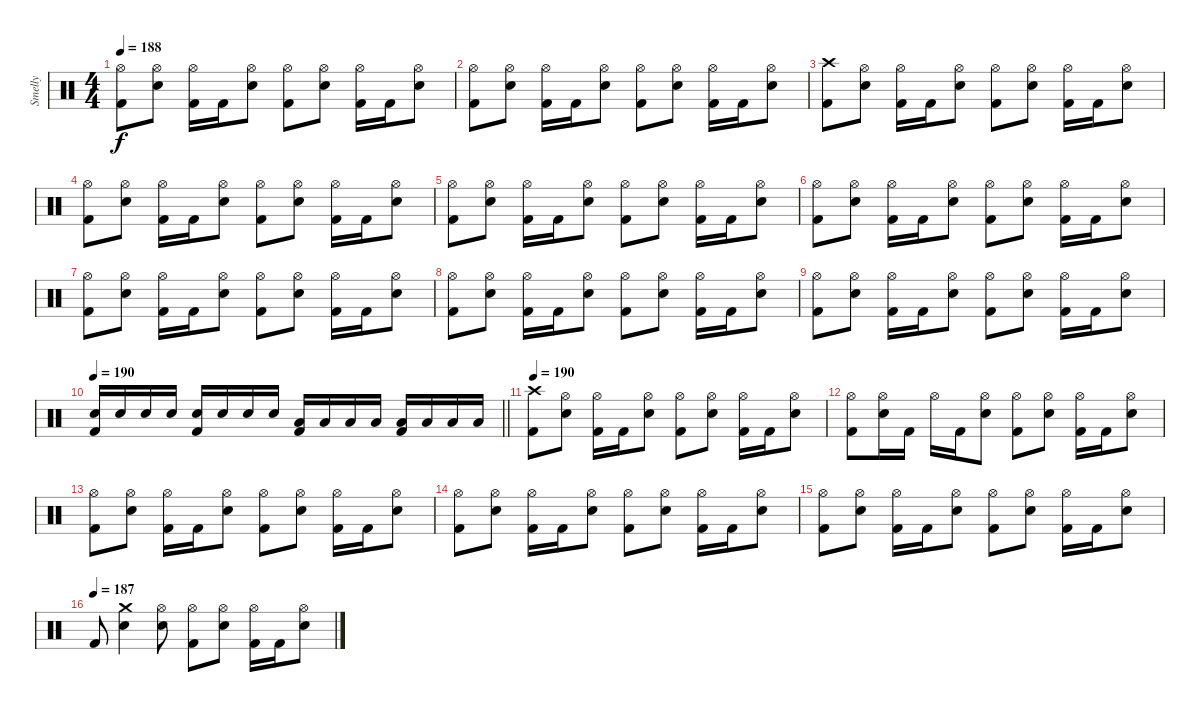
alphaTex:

\track ("Smelly" "Smelly") {instrument percussion}
\staff {score}
\articulation defaults
\ts (4 4)
\tempo 188
\clef neutral
\ks c
("Hi-Hat (open)" "Kick (hit) 2").8{dy f} ("Hi-Hat (open)" "Electric Snare (hit)").8 ("Hi-Hat (open)" "Kick (hit) 2").16 "Kick (hit) 2".16 ("Hi-Hat (open)" "Electric Snare (hit)").8 ("Hi-Hat (open)" "Kick (hit) 2").8 ("Hi-Hat (open)" "Electric Snare (hit)").8 ("Hi-Hat (open)" "Kick (hit) 2").16 "Kick (hit) 2".16 ("Hi-Hat (open)" "Electric Snare (hit)").8 |
("Hi-Hat (open)" "Kick (hit) 2").8 ("Hi-Hat (open)" "Electric Snare (hit)").8 ("Hi-Hat (open)" "Kick (hit) 2").16 "Kick (hit) 2".16 ("Hi-Hat (open)" "Electric Snare (hit)").8 ("Hi-Hat (open)" "Kick (hit) 2").8 ("Hi-Hat (open)" "Electric Snare (hit)").8 ("Hi-Hat (open)" "Kick (hit) 2").16 "Kick (hit) 2".16 ("Hi-Hat (open)" "Electric Snare (hit)").8 |
("Crash high (hit)" "Kick (hit) 2").8 ("Hi-Hat (open)" "Electric Snare (hit)").8 ("Hi-Hat (open)" "Kick (hit) 2").16 "Kick (hit) 2".16 ("Hi-Hat (open)" "Electric Snare (hit)").8 ("Hi-Hat (open)" "Kick (hit) 2").8 ("Hi-Hat (open)" "Electric Snare (hit)").8 ("Hi-Hat (open)" "Kick (hit) 2").16 "Kick (hit) 2".16 ("Hi-Hat (open)" "Electric Snare (hit)").8 |
("Hi-Hat (open)" "Kick (hit) 2").8 ("Hi-Hat (open)" "Electric Snare (hit)").8 ("Hi-Hat (open)" "Kick (hit) 2").16 "Kick (hit) 2".16 ("Hi-Hat (open)" "Electric Snare (hit)").8 ("Hi-Hat (open)" "Kick (hit) 2").8 ("Hi-Hat (open)" "Electric Snare (hit)").8 ("Hi-Hat (open)" "Kick (hit) 2").16 "Kick (hit) 2".16 ("Hi-Hat (open)" "Electric Snare (hit)").8 |
("Hi-Hat (open)" "Kick (hit) 2").8 ("Hi-Hat (open)" "Electric Snare (hit)").8 ("Hi-Hat (open)" "Kick (hit) 2").16 "Kick (hit) 2".16 ("Hi-Hat (open)" "Electric Snare (hit)").8 ("Hi-Hat (open)" "Kick (hit) 2").8 ("Hi-Hat (open)" "Electric Snare (hit)").8 ("Hi-Hat (open)" "Kick (hit) 2").16 "Kick (hit) 2".16 ("Hi-Hat (open)" "Electric Snare (hit)").8 |
("Hi-Hat (open)" "Kick (hit) 2").8 ("Hi-Hat (open)" "Electric Snare (hit)").8 ("Hi-Hat (open)" "Kick (hit) 2").16 "Kick (hit) 2".16 ("Hi-Hat (open)" "Electric Snare (hit)").8 ("Hi-Hat (open)" "Kick (hit) 2").8 ("Hi-Hat (open)" "Electric Snare (hit)").8 ("Hi-Hat (open)" "Kick (hit) 2").16 "Kick (hit) 2".16 ("Hi-Hat (open)" "Electric Snare (hit)").8 |
("Hi-Hat (open)" "Kick (hit) 2").8 ("Hi-Hat (open)" "Electric Snare (hit)").8 ("Hi-Hat (open)" "Kick (hit) 2").16 "Kick (hit) 2".16 ("Hi-Hat (open)" "Electric Snare (hit)").8 ("Hi-Hat (open)" "Kick (hit) 2").8 ("Hi-Hat (open)" "Electric Snare (hit)").8 ("Hi-Hat (open)" "Kick (hit) 2").16 "Kick (hit) 2".16 ("Hi-Hat (open)" "Electric Snare (hit)").8 |
("Hi-Hat (open)" "Kick (hit) 2").8 ("Hi-Hat (open)" "Electric Snare (hit)").8 ("Hi-Hat (open)" "Kick (hit) 2").16 "Kick (hit) 2".16 ("Hi-Hat (open)" "Electric Snare (hit)").8 ("Hi-Hat (open)" "Kick (hit) 2").8 ("Hi-Hat (open)" "Electric Snare (hit)").8 ("Hi-Hat (open)" "Kick (hit) 2").16 "Kick (hit) 2".16 ("Hi-Hat (open)" "Electric Snare (hit)").8 |
("Hi-Hat (open)" "Kick (hit) 2").8 ("Hi-Hat (open)" "Electric Snare (hit)").8 ("Hi-Hat (open)" "Kick (hit) 2").16 "Kick (hit) 2".16 ("Hi-Hat (open)" "Electric Snare (hit)").8 ("Hi-Hat (open)" "Kick (hit) 2").8 ("Hi-Hat (open)" "Electric Snare (hit)").8 ("Hi-Hat (open)" "Kick (hit) 2").16 "Kick (hit) 2".16 ("Hi-Hat (open)" "Electric Snare (hit)").8 |
\tempo 190
\barLineRight lightlight
("Electric Snare (hit)" "Kick (hit) 2").16 "Electric Snare (hit)".16 "Electric Snare (hit)".16 "Electric Snare (hit)".16 ("Electric Snare (hit)" "Kick (hit) 2").16 "Electric Snare (hit)".16 "Electric Snare (hit)".16 "Electric Snare (hit)".16 ("Low Tom (hit)" "Kick (hit) 2").16 "Low Tom (hit)".16 "Low Tom (hit)".16 "Low Tom (hit)".16 ("Low Floor Tom (hit)" "Kick (hit) 2").16 "Low Floor Tom (hit)".16 "Low Floor Tom (hit)".16 "Low Floor Tom (hit)".16 |
\section ("" "")
\tempo 190
("Crash high (hit)" "Kick (hit) 2").8 ("Hi-Hat (open)" "Electric Snare (hit)").8 ("Hi-Hat (open)" "Kick (hit) 2").16 "Kick (hit) 2".16 ("Hi-Hat (open)" "Electric Snare (hit)").8 ("Hi-Hat (open)" "Kick (hit) 2").8 ("Hi-Hat (open)" "Electric Snare (hit)").8 ("Hi-Hat (open)" "Kick (hit) 2").16 "Kick (hit) 2".16 ("Hi-Hat (open)" "Electric Snare (hit)").8 |
("Hi-Hat (open)" "Kick (hit) 2").8 ("Hi-Hat (open)" "Electric Snare (hit)").16 "Kick (hit) 2".16 "Hi-Hat (open)".16 "Kick (hit) 2".16 ("Hi-Hat (open)" "Electric Snare (hit)").8 ("Hi-Hat (open)" "Kick (hit) 2").8 ("Hi-Hat (open)" "Electric Snare (hit)").8 ("Hi-Hat (open)" "Kick (hit) 2").16 "Kick (hit) 2".16 ("Hi-Hat (open)" "Electric Snare (hit)").8 |
("Hi-Hat (open)" "Kick (hit) 2").8 ("Hi-Hat (open)" "Electric Snare (hit)").8 ("Hi-Hat (open)" "Kick (hit) 2").16 "Kick (hit) 2".16 ("Hi-Hat (open)" "Electric Snare (hit)").8 ("Hi-Hat (open)" "Kick (hit) 2").8 ("Hi-Hat (open)" "Electric Snare (hit)").8 ("Hi-Hat (open)" "Kick (hit) 2").16 "Kick (hit) 2".16 ("Hi-Hat (open)" "Electric Snare (hit)").8 |
("Hi-Hat (open)" "Kick (hit) 2").8 ("Hi-Hat (open)" "Electric Snare (hit)").8 ("Hi-Hat (open)" "Kick (hit) 2").16 "Kick (hit) 2".16 ("Hi-Hat (open)" "Electric Snare (hit)").8 ("Hi-Hat (open)" "Kick (hit) 2").8 ("Hi-Hat (open)" "Electric Snare (hit)").8 ("Hi-Hat (open)" "Kick (hit) 2").16 "Kick (hit) 2".16 ("Hi-Hat (open)" "Electric Snare (hit)").8 |
("Hi-Hat (open)" "Kick (hit) 2").8 ("Hi-Hat (open)" "Electric Snare (hit)").8 ("Hi-Hat (open)" "Kick (hit) 2").16 "Kick (hit) 2".16 ("Hi-Hat (open)" "Electric Snare (hit)").8 ("Hi-Hat (open)" "Kick (hit) 2").8 ("Hi-Hat (open)" "Electric Snare (hit)").8 ("Hi-Hat (open)" "Kick (hit) 2").16 "Kick (hit) 2".16 ("Hi-Hat (open)" "Electric Snare (hit)").8 |
\tempo (187)
"Kick (hit) 2".8 ("Crash medium (hit)" "Electric Snare (hit)").4 ("Hi-Hat (open)" "Electric Snare (hit)").8 ("Hi-Hat (open)" "Kick (hit) 2").8 ("Hi-Hat (open)" "Electric Snare (hit)").8 ("Hi-Hat (open)" "Kick (hit) 2").16 "Kick (hit) 2".16 ("Hi-Hat (open)" "Electric Snare (hit)").8
